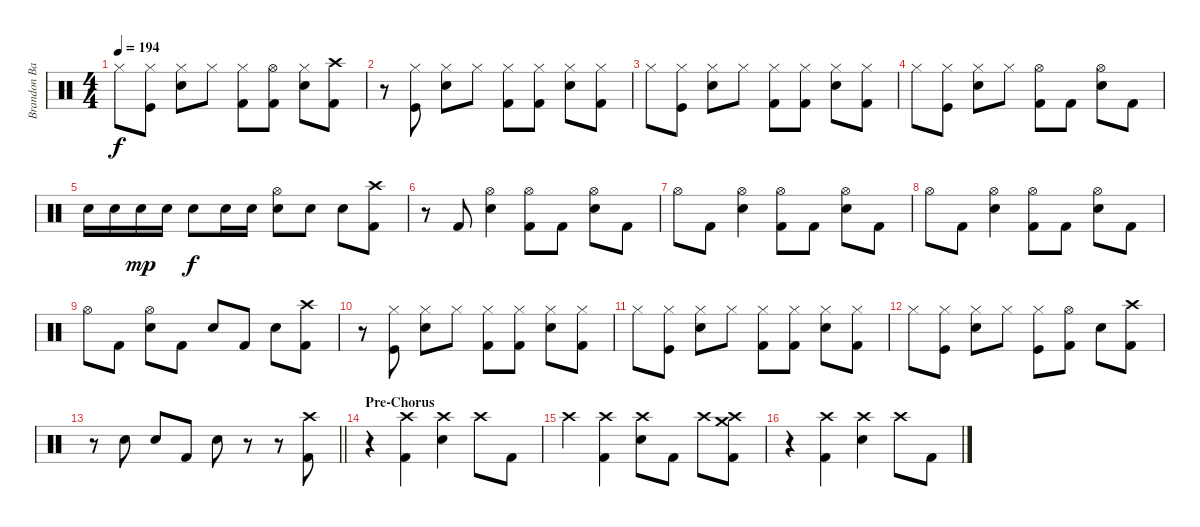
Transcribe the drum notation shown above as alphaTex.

\track ("Brandon Barnes - Drums" "Brandon Ba") {instrument percussion}
\staff {score}
\articulation defaults
\ts (4 4)
\tempo 194
\clef neutral
\ks c "Hi-Hat (closed)".8{dy f}
("Kick (hit)" "Hi-Hat (closed)").8 ("Snare (hit) 2" "Hi-Hat (closed)").8 "Hi-Hat (closed)".8 ("Kick (hit) 2" "Hi-Hat (closed)").8 ("Kick (hit) 2" "Hi-Hat (open)").8 ("Snare (hit) 2" "Hi-Hat (closed)").8 ("Kick (hit) 2" "Crash high (hit)").8 |
r.8 ("Kick (hit)" "Hi-Hat (closed)").8 ("Snare (hit) 2" "Hi-Hat (closed)").8 "Hi-Hat (closed)".8 ("Kick (hit) 2" "Hi-Hat (closed)").8 ("Kick (hit) 2" "Hi-Hat (closed)").8 ("Snare (hit) 2" "Hi-Hat (closed)").8 ("Kick (hit) 2" "Hi-Hat (closed)").8 |
"Hi-Hat (closed)".8 ("Kick (hit)" "Hi-Hat (closed)").8 ("Snare (hit) 2" "Hi-Hat (closed)").8 "Hi-Hat (closed)".8 ("Kick (hit) 2" "Hi-Hat (closed)").8 ("Kick (hit) 2" "Hi-Hat (closed)").8 ("Snare (hit) 2" "Hi-Hat (closed)").8 ("Kick (hit) 2" "Hi-Hat (closed)").8 |
"Hi-Hat (closed)".8 ("Kick (hit)" "Hi-Hat (closed)").8 ("Snare (hit) 2" "Hi-Hat (closed)").8 "Hi-Hat (closed)".8 ("Kick (hit) 2" "Hi-Hat (open)").8 "Kick (hit) 2".8 ("Snare (hit) 2" "Hi-Hat (open)").8 "Kick (hit) 2".8 |
"Snare (hit) 2".16 "Snare (hit) 2".16 "Snare (hit) 2".16{dy mp} "Snare (hit) 2".16 "Snare (hit) 2".8{dy f} "Snare (hit) 2".16 "Snare (hit) 2".16 ("Hi-Hat (open)" "Snare (hit) 2").8 "Snare (hit) 2".8 "Snare (hit) 2".8 ("Kick (hit) 2" "Crash high (hit)").8 |
r.8 "Kick (hit) 2".8 ("Snare (hit) 2" "Hi-Hat (open)").4 ("Kick (hit) 2" "Hi-Hat (open)").8 "Kick (hit) 2".8 ("Snare (hit) 2" "Hi-Hat (open)").8 "Kick (hit) 2".8 |
"Hi-Hat (open)".8 "Kick (hit) 2".8 ("Snare (hit) 2" "Hi-Hat (open)").4 ("Kick (hit) 2" "Hi-Hat (open)").8 "Kick (hit) 2".8 ("Snare (hit) 2" "Hi-Hat (open)").8 "Kick (hit) 2".8 |
"Hi-Hat (open)".8 "Kick (hit) 2".8 ("Snare (hit) 2" "Hi-Hat (open)").4 ("Kick (hit) 2" "Hi-Hat (open)").8 "Kick (hit) 2".8 ("Snare (hit) 2" "Hi-Hat (open)").8 "Kick (hit) 2".8 |
"Hi-Hat (open)".8 "Kick (hit) 2".8 ("Snare (hit) 2" "Hi-Hat (open)").8 "Kick (hit) 2".8 "Snare (hit) 2".8 "Kick (hit) 2".8 "Snare (hit) 2".8 ("Kick (hit) 2" "Crash high (hit)").8 |
r.8 ("Kick (hit)" "Hi-Hat (closed)").8 ("Snare (hit) 2" "Hi-Hat (closed)").8 "Hi-Hat (closed)".8 ("Kick (hit) 2" "Hi-Hat (closed)").8 ("Kick (hit) 2" "Hi-Hat (closed)").8 ("Snare (hit) 2" "Hi-Hat (closed)").8 ("Kick (hit) 2" "Hi-Hat (closed)").8 |
"Hi-Hat (closed)".8 ("Kick (hit)" "Hi-Hat (closed)").8 ("Snare (hit) 2" "Hi-Hat (closed)").8 "Hi-Hat (closed)".8 ("Kick (hit) 2" "Hi-Hat (closed)").8 ("Kick (hit) 2" "Hi-Hat (closed)").8 ("Snare (hit) 2" "Hi-Hat (closed)").8 ("Kick (hit) 2" "Hi-Hat (closed)").8 |
"Hi-Hat (closed)".8 ("Kick (hit)" "Hi-Hat (closed)").8 ("Snare (hit) 2" "Hi-Hat (closed)").8 "Hi-Hat (closed)".8 ("Kick (hit)" "Hi-Hat (closed)").8 ("Kick (hit) 2" "Hi-Hat (open)").8 "Snare (hit) 2".8 ("Kick (hit) 2" "Crash high (hit)").8 |
\barLineRight lightlight
r.8 "Snare (hit) 2".8 "Snare (hit) 2".8 "Kick (hit) 2".8 "Snare (hit) 2".8 r.8 r.8 ("Kick (hit) 2" "Crash high (hit)").8 |
\section ("" "Pre-Chorus")
r.4 ("Crash high (hit)" "Kick (hit) 2").4 ("Crash high (hit)" "Snare (hit) 2").4 "Crash high (hit)".8 "Kick (hit) 2".8 |
"Crash high (hit)".4 ("Kick (hit) 2" "Crash high (hit)").4 ("Snare (hit) 2" "Crash high (hit)").8 "Kick (hit) 2".8 "Crash high (hit)".8 ("Crash high (hit)" "Kick (hit) 2" "Crash medium (hit)").8 |
r.4 ("Crash high (hit)" "Kick (hit) 2").4 ("Crash high (hit)" "Snare (hit) 2").4 "Crash high (hit)".8 "Kick (hit) 2".8
